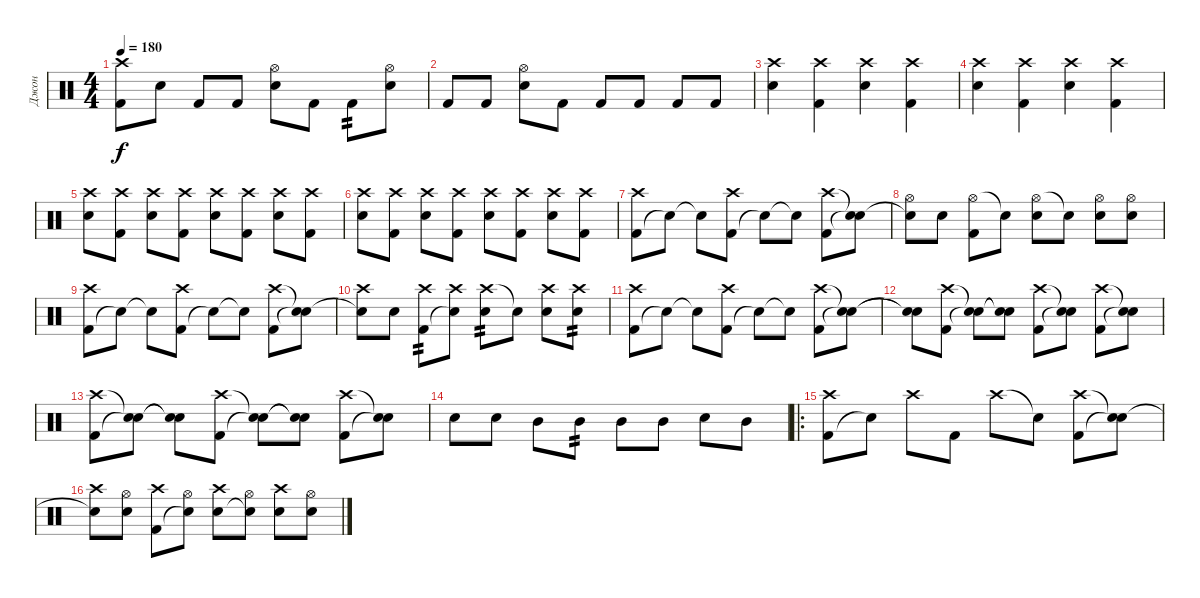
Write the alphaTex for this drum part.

\track ("Джон" "Джон") {instrument percussion}
\staff {score}
\articulation defaults
\ts (4 4)
\tempo 180
\clef neutral
\ks c
("Crash high (hit)" "Kick (hit) 2").8{dy f} "Snare (hit)".8 "Kick (hit) 2".8 "Kick (hit) 2".8 ("Hi-Hat (open)" "Snare (hit) 2").8 "Kick (hit) 2".8 "Kick (hit) 2".8{tp 2} ("Hi-Hat (open)" "Snare (hit) 2").8 |
"Kick (hit) 2".8 "Kick (hit) 2".8 ("Hi-Hat (open)" "Snare (hit) 2").8 "Kick (hit) 2".8 "Kick (hit) 2".8 "Kick (hit) 2".8 "Kick (hit) 2".8 "Kick (hit) 2".8 |
("Crash high (hit)" "Snare (hit) 2").4 ("Crash high (hit)" "Kick (hit) 2").4 ("Crash high (hit)" "Snare (hit) 2").4 ("Crash high (hit)" "Kick (hit) 2").4 |
("Crash high (hit)" "Snare (hit) 2").4 ("Crash high (hit)" "Kick (hit) 2").4 ("Crash high (hit)" "Snare (hit) 2").4 ("Crash high (hit)" "Kick (hit) 2").4 |
("Crash high (hit)" "Snare (hit) 2").8 ("Crash high (hit)" "Kick (hit) 2").8 ("Crash high (hit)" "Snare (hit) 2").8 ("Crash high (hit)" "Kick (hit) 2").8 ("Crash high (hit)" "Snare (hit) 2").8 ("Crash high (hit)" "Kick (hit) 2").8 ("Crash high (hit)" "Snare (hit) 2").8 ("Crash high (hit)" "Kick (hit) 2").8 |
("Crash high (hit)" "Snare (hit) 2").8 ("Crash high (hit)" "Kick (hit) 2").8 ("Crash high (hit)" "Snare (hit) 2").8 ("Crash high (hit)" "Kick (hit) 2").8 ("Crash high (hit)" "Snare (hit) 2").8 ("Crash high (hit)" "Kick (hit) 2").8 ("Crash high (hit)" "Snare (hit) 2").8 ("Crash high (hit)" "Kick (hit) 2").8 |
("Kick (hit) 2" "Crash high (hit)").8 "Snare (hit)"{t}.8 "Snare (hit)"{t}.8 ("Kick (hit) 2" "Crash high (hit)").8 "Snare (hit)"{t}.8 "Snare (hit)"{t}.8 ("Kick (hit) 2" "Crash high (hit)").8 ("Snare (hit)"{t} "Snare (hit)"{t}).8 |
("Hi-Hat (open)" "Snare (hit)"{t}).8 "Electric Snare (hit)".8 ("Hi-Hat (open)" "Kick (hit) 2").8 "Snare (hit)"{t}.8 ("Hi-Hat (open)" "Electric Snare (hit)").8 "Snare (hit)"{t}.8 ("Hi-Hat (open)" "Electric Snare (hit)").8 ("Hi-Hat (open)" "Electric Snare (hit)").8 |
("Kick (hit) 2" "Crash high (hit)").8 "Snare (hit)"{t}.8 "Snare (hit)"{t}.8 ("Kick (hit) 2" "Crash high (hit)").8 "Snare (hit)"{t}.8 "Snare (hit)"{t}.8 ("Kick (hit) 2" "Crash high (hit)").8 ("Snare (hit)"{t} "Snare (hit)"{t}).8 |
("Crash high (hit)" "Snare (hit)"{t}).8 "Electric Snare (hit)".8 ("Crash high (hit)" "Kick (hit) 2").8{tp 2} ("Crash high (hit)" "Snare (hit)"{t}).8 ("Crash high (hit)" "Electric Snare (hit)").8{tp 2} "Snare (hit)"{t}.8 ("Crash high (hit)" "Electric Snare (hit)").8 ("Crash high (hit)" "Electric Snare (hit)").8{tp 2} |
("Kick (hit) 2" "Crash high (hit)").8 "Snare (hit)"{t}.8 "Snare (hit)"{t}.8 ("Kick (hit) 2" "Crash high (hit)").8 "Snare (hit)"{t}.8 "Snare (hit)"{t}.8 ("Kick (hit) 2" "Crash high (hit)").8 ("Snare (hit)"{t} "Snare (hit)"{t}).8 |
("Snare (hit)"{t} "Snare (hit)"{t}).8 ("Kick (hit) 2" "Crash high (hit)").8 ("Snare (hit)"{t} "Snare (hit)"{t}).8 ("Snare (hit)"{t} "Snare (hit)"{t}).8 ("Kick (hit) 2" "Crash high (hit)").8 ("Snare (hit)"{t} "Snare (hit)"{t}).8 ("Kick (hit) 2" "Crash high (hit)").8 ("Snare (hit)"{t} "Snare (hit)"{t}).8 |
("Kick (hit) 2" "Crash high (hit)").8 ("Snare (hit)"{t} "Snare (hit)"{t}).8 ("Snare (hit)"{t} "Snare (hit)"{t}).8 ("Kick (hit) 2" "Crash high (hit)").8 ("Snare (hit)"{t} "Snare (hit)"{t}).8 ("Snare (hit)"{t} "Snare (hit)"{t}).8 ("Kick (hit) 2" "Crash high (hit)").8 ("Snare (hit)"{t} "Snare (hit)"{t}).8 |
"Electric Snare (hit)".8 "Snare (hit)".8 "Mid Tom (hit)".8 "Mid Tom (hit)".8{tp 2} "Mid Tom (hit)".8 "Mid Tom (hit)".8 "Electric Snare (hit)".8 "Mid Tom (hit)".8 |
\ro
("Kick (hit) 2" "Crash high (hit)").8 "Snare (hit)"{t}.8 "Crash high (hit)".8 "Kick (hit) 2".8 "Crash high (hit)".8 "Snare (hit)"{t}.8 ("Kick (hit) 2" "Crash high (hit)").8 ("Snare (hit)"{t} "Snare (hit)"{t}).8 |
("Crash high (hit)" "Snare (hit)"{t}).8 ("Hi-Hat (open)" "Electric Snare (hit)").8 ("Crash high (hit)" "Kick (hit) 2").8 ("Hi-Hat (open)" "Snare (hit)"{t}).8 ("Crash high (hit)" "Electric Snare (hit)").8 ("Hi-Hat (open)" "Snare (hit)"{t}).8 ("Crash high (hit)" "Electric Snare (hit)").8 ("Hi-Hat (open)" "Electric Snare (hit)").8
